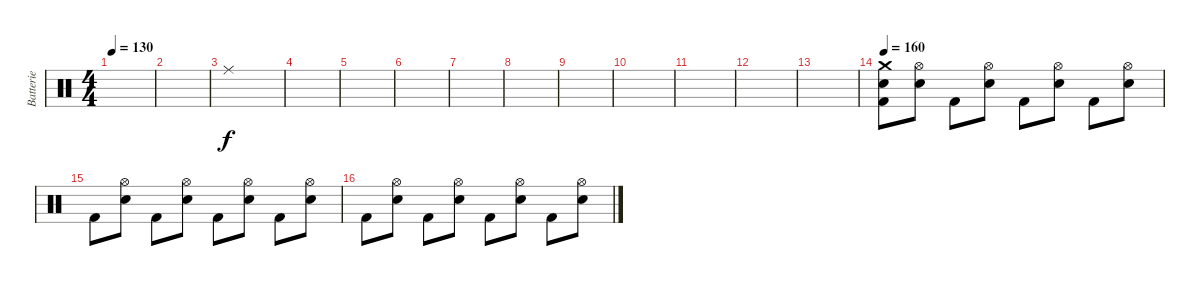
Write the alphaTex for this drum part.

\track ("Batterie" "Batterie") {instrument percussion}
\staff {score}
\articulation defaults
\ts (4 4)
\tempo 130
\clef neutral
\ks c
|
|
"Ride (middle)".1 |
|
|
|
|
|
|
|
|
|
|
\tempo 160
("Kick (hit) 2" "Crash medium (hit)" "Electric Snare (hit)").8 ("Electric Snare (hit)" "Hi-Hat (open)").8 "Kick (hit) 2".8 ("Electric Snare (hit)" "Hi-Hat (open)").8 "Kick (hit) 2".8 ("Electric Snare (hit)" "Hi-Hat (open)").8 "Kick (hit) 2".8 ("Electric Snare (hit)" "Hi-Hat (open)").8 |
"Kick (hit) 2".8 ("Electric Snare (hit)" "Hi-Hat (open)").8 "Kick (hit) 2".8 ("Electric Snare (hit)" "Hi-Hat (open)").8 "Kick (hit) 2".8 ("Electric Snare (hit)" "Hi-Hat (open)").8 "Kick (hit) 2".8 ("Electric Snare (hit)" "Hi-Hat (open)").8 |
"Kick (hit) 2".8 ("Electric Snare (hit)" "Hi-Hat (open)").8 "Kick (hit) 2".8 ("Electric Snare (hit)" "Hi-Hat (open)").8 "Kick (hit) 2".8 ("Electric Snare (hit)" "Hi-Hat (open)").8 "Kick (hit) 2".8 ("Electric Snare (hit)" "Hi-Hat (open)").8
